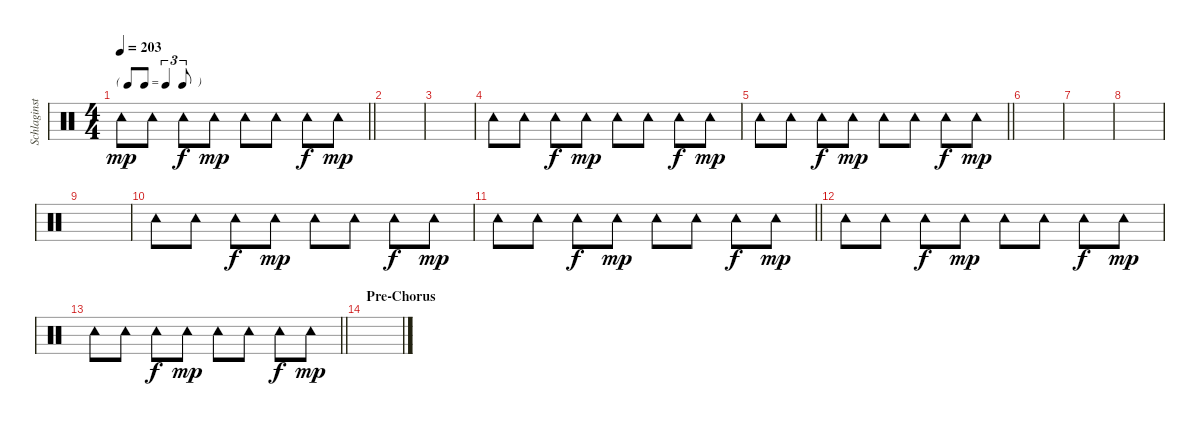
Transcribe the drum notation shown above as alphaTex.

\track ("Schlaginstrumente - Auswahl" "Schlaginst") {instrument percussion}
\staff {score}
\articulation defaults
\ts (4 4)
\tf triplet8th
\tempo 203
\clef neutral
\barLineRight lightlight
\ks c "Tambourine (hit)".8{dy mp} "Tambourine (hit)".8 "Tambourine (hit)".8{dy f} "Tambourine (hit)".8{dy mp} "Tambourine (hit)".8 "Tambourine (hit)".8 "Tambourine (hit)".8{dy f} "Tambourine (hit)".8{dy mp}
|
|
|
"Tambourine (hit)".8 "Tambourine (hit)".8 "Tambourine (hit)".8{dy f} "Tambourine (hit)".8{dy mp} "Tambourine (hit)".8 "Tambourine (hit)".8 "Tambourine (hit)".8{dy f} "Tambourine (hit)".8{dy mp} |
\barLineRight lightlight "Tambourine (hit)".8 "Tambourine (hit)".8 "Tambourine (hit)".8{dy f} "Tambourine (hit)".8{dy mp} "Tambourine (hit)".8 "Tambourine (hit)".8 "Tambourine (hit)".8{dy f} "Tambourine (hit)".8{dy mp}
|
|
|
|
|
"Tambourine (hit)".8 "Tambourine (hit)".8 "Tambourine (hit)".8{dy f} "Tambourine (hit)".8{dy mp} "Tambourine (hit)".8 "Tambourine (hit)".8 "Tambourine (hit)".8{dy f} "Tambourine (hit)".8{dy mp} |
\barLineRight lightlight "Tambourine (hit)".8 "Tambourine (hit)".8 "Tambourine (hit)".8{dy f} "Tambourine (hit)".8{dy mp} "Tambourine (hit)".8 "Tambourine (hit)".8 "Tambourine (hit)".8{dy f} "Tambourine (hit)".8{dy mp}
|
"Tambourine (hit)".8 "Tambourine (hit)".8 "Tambourine (hit)".8{dy f} "Tambourine (hit)".8{dy mp} "Tambourine (hit)".8 "Tambourine (hit)".8 "Tambourine (hit)".8{dy f} "Tambourine (hit)".8{dy mp} |
\barLineRight lightlight "Tambourine (hit)".8 "Tambourine (hit)".8 "Tambourine (hit)".8{dy f} "Tambourine (hit)".8{dy mp} "Tambourine (hit)".8 "Tambourine (hit)".8 "Tambourine (hit)".8{dy f} "Tambourine (hit)".8{dy mp}
|
\section ("" "Pre-Chorus")
